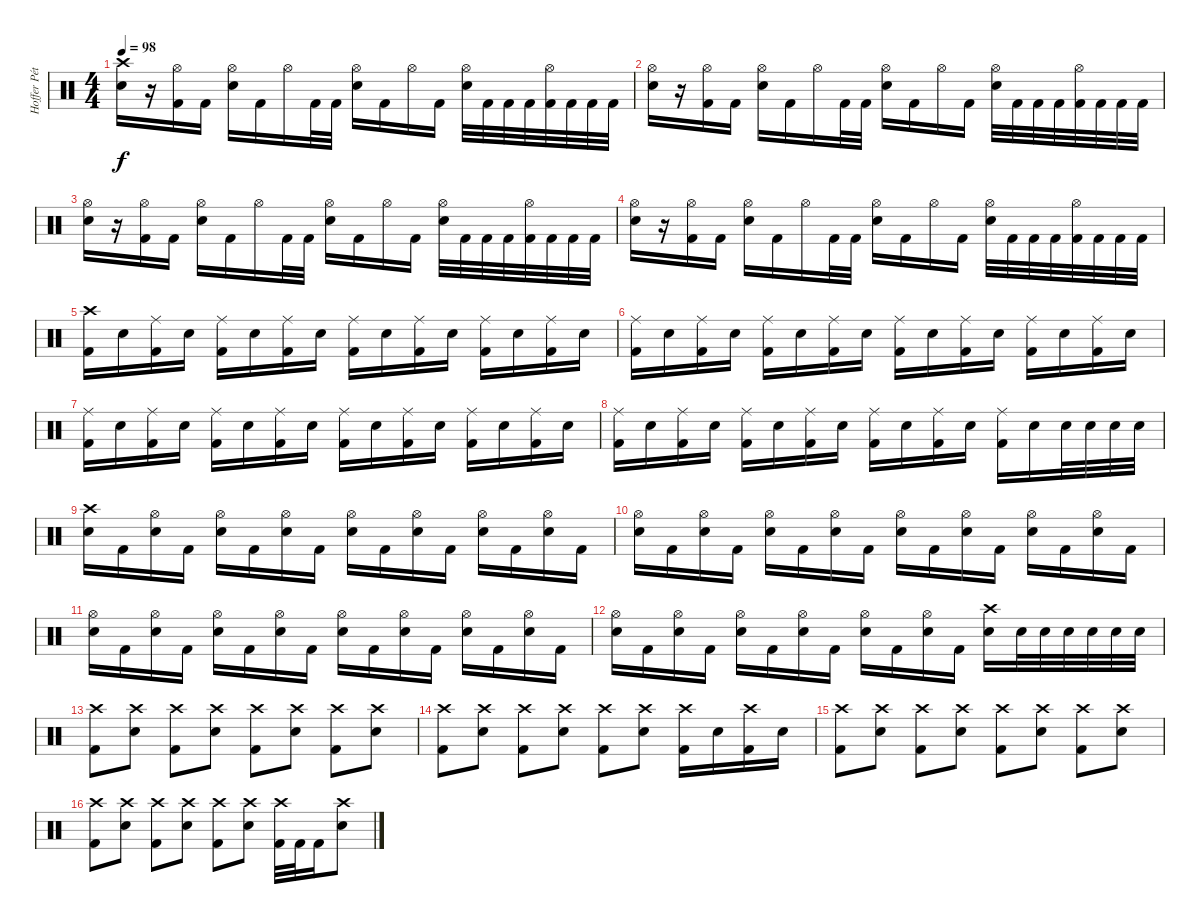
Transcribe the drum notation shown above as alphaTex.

\track ("Hoffer Péter" "Hoffer Pét") {instrument percussion}
\staff {score}
\articulation defaults
\ts (4 4)
\tempo 98
\clef neutral
\ks c
("Crash high (hit)" "Electric Snare (hit)").16{dy f} r.16 ("Hi-Hat (open)" "Kick (hit) 2").16 "Kick (hit) 2".16 ("Hi-Hat (open)" "Electric Snare (hit)").16 "Kick (hit) 2".16 "Hi-Hat (open)".16 "Kick (hit) 2".32 "Kick (hit) 2".32 ("Hi-Hat (open)" "Electric Snare (hit)").16 "Kick (hit) 2".16 "Hi-Hat (open)".16 "Kick (hit) 2".16 ("Hi-Hat (open)" "Electric Snare (hit)").32 "Kick (hit) 2".32 "Kick (hit) 2".32 "Kick (hit) 2".32 ("Hi-Hat (open)" "Kick (hit) 2").32 "Kick (hit) 2".32 "Kick (hit) 2".32 "Kick (hit) 2".32 |
("Hi-Hat (open)" "Electric Snare (hit)").16 r.16 ("Hi-Hat (open)" "Kick (hit) 2").16 "Kick (hit) 2".16 ("Hi-Hat (open)" "Electric Snare (hit)").16 "Kick (hit) 2".16 "Hi-Hat (open)".16 "Kick (hit) 2".32 "Kick (hit) 2".32 ("Hi-Hat (open)" "Electric Snare (hit)").16 "Kick (hit) 2".16 "Hi-Hat (open)".16 "Kick (hit) 2".16 ("Hi-Hat (open)" "Electric Snare (hit)").32 "Kick (hit) 2".32 "Kick (hit) 2".32 "Kick (hit) 2".32 ("Hi-Hat (open)" "Kick (hit) 2").32 "Kick (hit) 2".32 "Kick (hit) 2".32 "Kick (hit) 2".32 |
("Hi-Hat (open)" "Electric Snare (hit)").16 r.16 ("Hi-Hat (open)" "Kick (hit) 2").16 "Kick (hit) 2".16 ("Hi-Hat (open)" "Electric Snare (hit)").16 "Kick (hit) 2".16 "Hi-Hat (open)".16 "Kick (hit) 2".32 "Kick (hit) 2".32 ("Hi-Hat (open)" "Electric Snare (hit)").16 "Kick (hit) 2".16 "Hi-Hat (open)".16 "Kick (hit) 2".16 ("Hi-Hat (open)" "Electric Snare (hit)").32 "Kick (hit) 2".32 "Kick (hit) 2".32 "Kick (hit) 2".32 ("Hi-Hat (open)" "Kick (hit) 2").32 "Kick (hit) 2".32 "Kick (hit) 2".32 "Kick (hit) 2".32 |
("Hi-Hat (open)" "Electric Snare (hit)").16 r.16 ("Hi-Hat (open)" "Kick (hit) 2").16 "Kick (hit) 2".16 ("Hi-Hat (open)" "Electric Snare (hit)").16 "Kick (hit) 2".16 "Hi-Hat (open)".16 "Kick (hit) 2".32 "Kick (hit) 2".32 ("Hi-Hat (open)" "Electric Snare (hit)").16 "Kick (hit) 2".16 "Hi-Hat (open)".16 "Kick (hit) 2".16 ("Hi-Hat (open)" "Electric Snare (hit)").32 "Kick (hit) 2".32 "Kick (hit) 2".32 "Kick (hit) 2".32 ("Hi-Hat (open)" "Kick (hit) 2").32 "Kick (hit) 2".32 "Kick (hit) 2".32 "Kick (hit) 2".32 |
("Crash high (hit)" "Kick (hit) 2").16 "Electric Snare (hit)".16 ("Ride (middle)" "Kick (hit) 2").16 "Electric Snare (hit)".16 ("Ride (middle)" "Kick (hit) 2").16 "Electric Snare (hit)".16 ("Ride (middle)" "Kick (hit) 2").16 "Electric Snare (hit)".16 ("Ride (middle)" "Kick (hit) 2").16 "Electric Snare (hit)".16 ("Ride (middle)" "Kick (hit) 2").16 "Electric Snare (hit)".16 ("Ride (middle)" "Kick (hit) 2").16 "Electric Snare (hit)".16 ("Ride (middle)" "Kick (hit) 2").16 "Electric Snare (hit)".16 |
("Ride (middle)" "Kick (hit) 2").16 "Electric Snare (hit)".16 ("Ride (middle)" "Kick (hit) 2").16 "Electric Snare (hit)".16 ("Ride (middle)" "Kick (hit) 2").16 "Electric Snare (hit)".16 ("Ride (middle)" "Kick (hit) 2").16 "Electric Snare (hit)".16 ("Ride (middle)" "Kick (hit) 2").16 "Electric Snare (hit)".16 ("Ride (middle)" "Kick (hit) 2").16 "Electric Snare (hit)".16 ("Ride (middle)" "Kick (hit) 2").16 "Electric Snare (hit)".16 ("Ride (middle)" "Kick (hit) 2").16 "Electric Snare (hit)".16 |
("Ride (middle)" "Kick (hit) 2").16 "Electric Snare (hit)".16 ("Ride (middle)" "Kick (hit) 2").16 "Electric Snare (hit)".16 ("Ride (middle)" "Kick (hit) 2").16 "Electric Snare (hit)".16 ("Ride (middle)" "Kick (hit) 2").16 "Electric Snare (hit)".16 ("Ride (middle)" "Kick (hit) 2").16 "Electric Snare (hit)".16 ("Ride (middle)" "Kick (hit) 2").16 "Electric Snare (hit)".16 ("Ride (middle)" "Kick (hit) 2").16 "Electric Snare (hit)".16 ("Ride (middle)" "Kick (hit) 2").16 "Electric Snare (hit)".16 |
("Ride (middle)" "Kick (hit) 2").16 "Electric Snare (hit)".16 ("Ride (middle)" "Kick (hit) 2").16 "Electric Snare (hit)".16 ("Ride (middle)" "Kick (hit) 2").16 "Electric Snare (hit)".16 ("Ride (middle)" "Kick (hit) 2").16 "Electric Snare (hit)".16 ("Ride (middle)" "Kick (hit) 2").16 "Electric Snare (hit)".16 ("Ride (middle)" "Kick (hit) 2").16 "Electric Snare (hit)".16 ("Ride (middle)" "Kick (hit) 2").16 "Electric Snare (hit)".16 "Electric Snare (hit)".32 "Electric Snare (hit)".32 "Electric Snare (hit)".32 "Electric Snare (hit)".32 |
("Crash high (hit)" "Electric Snare (hit)").16{volume 16} "Kick (hit) 2".16 ("Hi-Hat (open)" "Electric Snare (hit)").16 "Kick (hit) 2".16 ("Hi-Hat (open)" "Electric Snare (hit)").16 "Kick (hit) 2".16 ("Hi-Hat (open)" "Electric Snare (hit)").16 "Kick (hit) 2".16 ("Hi-Hat (open)" "Electric Snare (hit)").16 "Kick (hit) 2".16 ("Hi-Hat (open)" "Electric Snare (hit)").16 "Kick (hit) 2".16 ("Hi-Hat (open)" "Electric Snare (hit)").16 "Kick (hit) 2".16 ("Hi-Hat (open)" "Electric Snare (hit)").16 "Kick (hit) 2".16 |
("Hi-Hat (open)" "Electric Snare (hit)").16 "Kick (hit) 2".16 ("Hi-Hat (open)" "Electric Snare (hit)").16 "Kick (hit) 2".16 ("Hi-Hat (open)" "Electric Snare (hit)").16 "Kick (hit) 2".16 ("Hi-Hat (open)" "Electric Snare (hit)").16 "Kick (hit) 2".16 ("Hi-Hat (open)" "Electric Snare (hit)").16 "Kick (hit) 2".16 ("Hi-Hat (open)" "Electric Snare (hit)").16 "Kick (hit) 2".16 ("Hi-Hat (open)" "Electric Snare (hit)").16 "Kick (hit) 2".16 ("Hi-Hat (open)" "Electric Snare (hit)").16 "Kick (hit) 2".16 |
("Hi-Hat (open)" "Electric Snare (hit)").16 "Kick (hit) 2".16 ("Hi-Hat (open)" "Electric Snare (hit)").16 "Kick (hit) 2".16 ("Hi-Hat (open)" "Electric Snare (hit)").16 "Kick (hit) 2".16 ("Hi-Hat (open)" "Electric Snare (hit)").16 "Kick (hit) 2".16 ("Hi-Hat (open)" "Electric Snare (hit)").16 "Kick (hit) 2".16 ("Hi-Hat (open)" "Electric Snare (hit)").16 "Kick (hit) 2".16 ("Hi-Hat (open)" "Electric Snare (hit)").16 "Kick (hit) 2".16 ("Hi-Hat (open)" "Electric Snare (hit)").16 "Kick (hit) 2".16 |
("Hi-Hat (open)" "Electric Snare (hit)").16 "Kick (hit) 2".16 ("Hi-Hat (open)" "Electric Snare (hit)").16 "Kick (hit) 2".16 ("Hi-Hat (open)" "Electric Snare (hit)").16 "Kick (hit) 2".16 ("Hi-Hat (open)" "Electric Snare (hit)").16 "Kick (hit) 2".16 ("Hi-Hat (open)" "Electric Snare (hit)").16 "Kick (hit) 2".16 ("Hi-Hat (open)" "Electric Snare (hit)").16 "Kick (hit) 2".16 ("Crash high (hit)" "Electric Snare (hit)").16 "Electric Snare (hit)".32 "Electric Snare (hit)".32 "Electric Snare (hit)".32 "Electric Snare (hit)".32 "Electric Snare (hit)".32 "Electric Snare (hit)".32 |
("Crash high (hit)" "Kick (hit) 2").8 ("Crash high (hit)" "Electric Snare (hit)").8 ("Crash high (hit)" "Kick (hit) 2").8 ("Crash high (hit)" "Electric Snare (hit)").8 ("Crash high (hit)" "Kick (hit) 2").8 ("Crash high (hit)" "Electric Snare (hit)").8 ("Crash high (hit)" "Kick (hit) 2").8 ("Crash high (hit)" "Electric Snare (hit)").8 |
("Crash high (hit)" "Kick (hit) 2").8 ("Crash high (hit)" "Electric Snare (hit)").8 ("Crash high (hit)" "Kick (hit) 2").8 ("Crash high (hit)" "Electric Snare (hit)").8 ("Crash high (hit)" "Kick (hit) 2").8 ("Crash high (hit)" "Electric Snare (hit)").8 ("Crash high (hit)" "Kick (hit) 2").16 "Electric Snare (hit)".16 ("Crash high (hit)" "Kick (hit) 2").16 "Electric Snare (hit)".16 |
("Crash high (hit)" "Kick (hit) 2").8 ("Crash high (hit)" "Electric Snare (hit)").8 ("Crash high (hit)" "Kick (hit) 2").8 ("Crash high (hit)" "Electric Snare (hit)").8 ("Crash high (hit)" "Kick (hit) 2").8 ("Crash high (hit)" "Electric Snare (hit)").8 ("Crash high (hit)" "Kick (hit) 2").8 ("Crash high (hit)" "Electric Snare (hit)").8 |
("Crash high (hit)" "Kick (hit) 2").8 ("Crash high (hit)" "Electric Snare (hit)").8 ("Crash high (hit)" "Kick (hit) 2").8 ("Crash high (hit)" "Electric Snare (hit)").8 ("Crash high (hit)" "Kick (hit) 2").8 ("Crash high (hit)" "Electric Snare (hit)").8 ("Crash high (hit)" "Kick (hit) 2").32 "Kick (hit) 2".32 "Kick (hit) 2".16 ("Crash high (hit)" "Electric Snare (hit)").8
